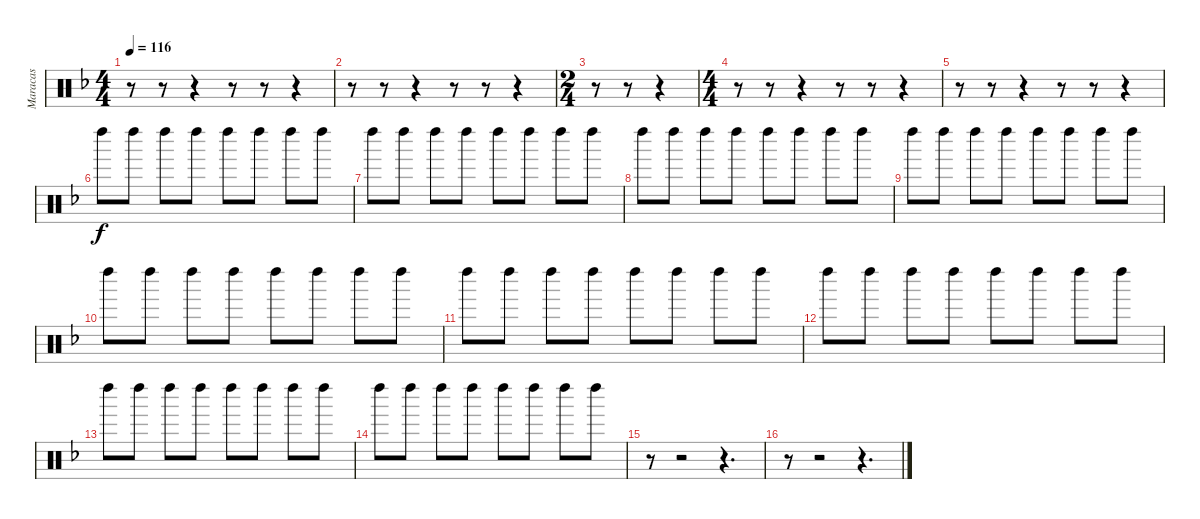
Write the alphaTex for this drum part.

\track ("Maracas" "Maracas") {instrument percussion}
\staff {score}
\articulation defaults
\ts (4 4)
\tempo 116
\clef neutral
\ks dminor
r.8{dy f} r.8 r.4 r.8 r.8 r.4 |
r.8 r.8 r.4 r.8 r.8 r.4 |
\ts (2 4)
r.8 r.8 r.4 |
\ts (4 4)
r.8 r.8 r.4 r.8 r.8 r.4 |
r.8 r.8 r.4 r.8 r.8 r.4 |
"Left Maraca (hit)".8 "Left Maraca (hit)".8 "Left Maraca (hit)".8 "Left Maraca (hit)".8 "Left Maraca (hit)".8 "Left Maraca (hit)".8 "Left Maraca (hit)".8 "Left Maraca (hit)".8 |
"Left Maraca (hit)".8 "Left Maraca (hit)".8 "Left Maraca (hit)".8 "Left Maraca (hit)".8 "Left Maraca (hit)".8 "Left Maraca (hit)".8 "Left Maraca (hit)".8 "Left Maraca (hit)".8 |
"Left Maraca (hit)".8 "Left Maraca (hit)".8 "Left Maraca (hit)".8 "Left Maraca (hit)".8 "Left Maraca (hit)".8 "Left Maraca (hit)".8 "Left Maraca (hit)".8 "Left Maraca (hit)".8 |
"Left Maraca (hit)".8 "Left Maraca (hit)".8 "Left Maraca (hit)".8 "Left Maraca (hit)".8 "Left Maraca (hit)".8 "Left Maraca (hit)".8 "Left Maraca (hit)".8 "Left Maraca (hit)".8 |
"Left Maraca (hit)".8 "Left Maraca (hit)".8 "Left Maraca (hit)".8 "Left Maraca (hit)".8 "Left Maraca (hit)".8 "Left Maraca (hit)".8 "Left Maraca (hit)".8 "Left Maraca (hit)".8 |
"Left Maraca (hit)".8 "Left Maraca (hit)".8 "Left Maraca (hit)".8 "Left Maraca (hit)".8 "Left Maraca (hit)".8 "Left Maraca (hit)".8 "Left Maraca (hit)".8 "Left Maraca (hit)".8 |
"Left Maraca (hit)".8 "Left Maraca (hit)".8 "Left Maraca (hit)".8 "Left Maraca (hit)".8 "Left Maraca (hit)".8 "Left Maraca (hit)".8 "Left Maraca (hit)".8 "Left Maraca (hit)".8 |
"Left Maraca (hit)".8 "Left Maraca (hit)".8 "Left Maraca (hit)".8 "Left Maraca (hit)".8 "Left Maraca (hit)".8 "Left Maraca (hit)".8 "Left Maraca (hit)".8 "Left Maraca (hit)".8 |
"Left Maraca (hit)".8 "Left Maraca (hit)".8 "Left Maraca (hit)".8 "Left Maraca (hit)".8 "Left Maraca (hit)".8 "Left Maraca (hit)".8 "Left Maraca (hit)".8 "Left Maraca (hit)".8 |
r.8 r.2 r.4{d} |
r.8 r.2 r.4{d}
